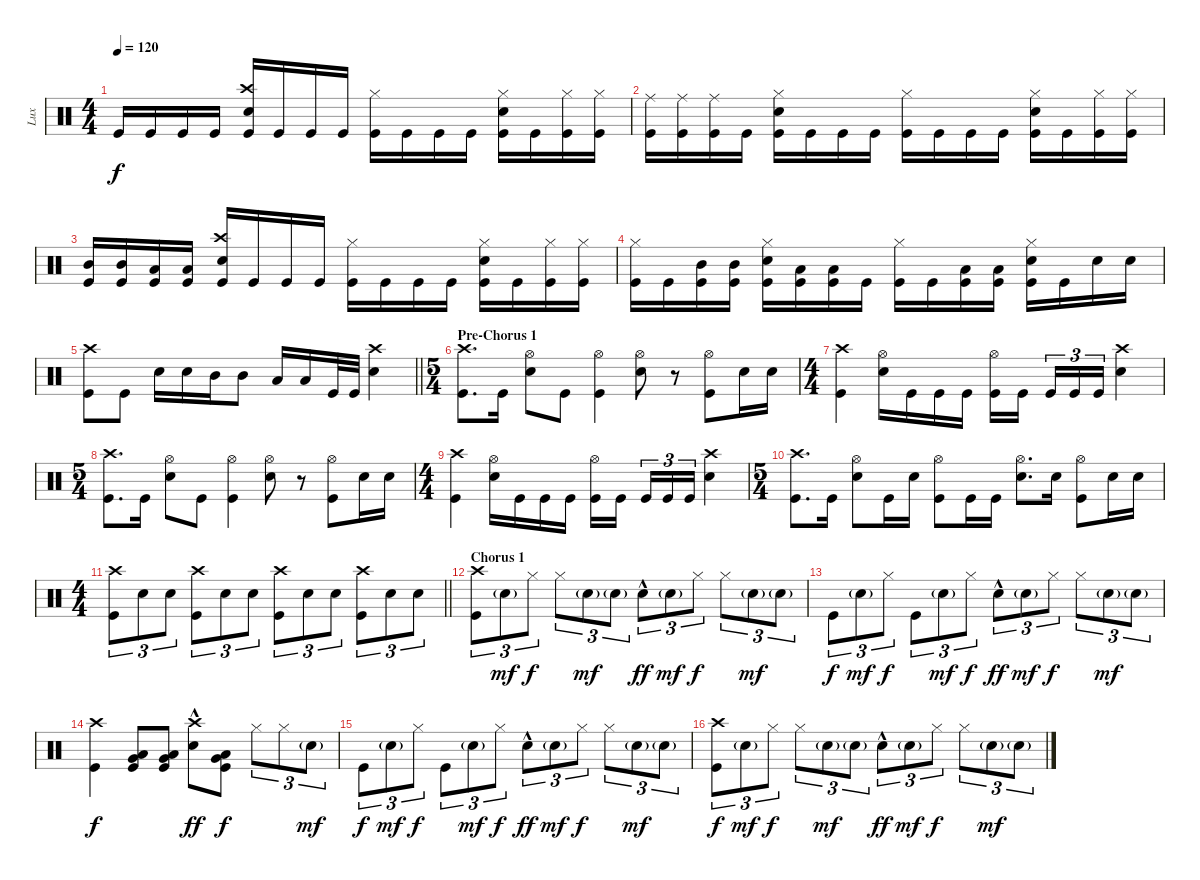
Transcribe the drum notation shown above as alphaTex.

\track ("Lux" "Lux") {instrument percussion bank 32}
\staff {score}
\articulation defaults
\ts (4 4)
\tempo 120
\clef neutral
\ks c "Kick (hit)".16{dy f} "Kick (hit)".16 "Kick (hit)".16 "Kick (hit)".16
("Crash high (hit)" "Snare (hit) 2" "Kick (hit)").16 "Kick (hit)".16 "Kick (hit)".16 "Kick (hit)".16 ("Hi-Hat (closed)" "Kick (hit)").16 "Kick (hit)".16 "Kick (hit)".16 "Kick (hit)".16 ("Hi-Hat (closed)" "Snare (hit) 2" "Kick (hit)").16 "Kick (hit)".16 ("Hi-Hat (closed)" "Kick (hit)").16 ("Hi-Hat (closed)" "Kick (hit)").16 |
("Ride (middle)" "Kick (hit)").16 ("Ride (middle)" "Kick (hit)").16 ("Ride (middle)" "Kick (hit)").16 "Kick (hit)".16 ("Hi-Hat (closed)" "Snare (hit) 2" "Kick (hit)").16 "Kick (hit)".16 "Kick (hit)".16 "Kick (hit)".16 ("Hi-Hat (closed)" "Kick (hit)").16 "Kick (hit)".16 "Kick (hit)".16 "Kick (hit)".16 ("Hi-Hat (closed)" "Snare (hit) 2" "Kick (hit)").16 "Kick (hit)".16 ("Hi-Hat (closed)" "Kick (hit)").16 ("Hi-Hat (closed)" "Kick (hit)").16 |
("Mid Tom (hit)" "Kick (hit)").16 ("Mid Tom (hit)" "Kick (hit)").16 ("Low Tom (hit)" "Kick (hit)").16 ("Low Tom (hit)" "Kick (hit)").16 ("Crash high (hit)" "Snare (hit) 2" "Kick (hit)").16 "Kick (hit)".16 "Kick (hit)".16 "Kick (hit)".16 ("Hi-Hat (closed)" "Kick (hit)").16 "Kick (hit)".16 "Kick (hit)".16 "Kick (hit)".16 ("Hi-Hat (closed)" "Snare (hit) 2" "Kick (hit)").16 "Kick (hit)".16 ("Hi-Hat (closed)" "Kick (hit)").16 ("Hi-Hat (closed)" "Kick (hit)").16 |
("Hi-Hat (closed)" "Kick (hit)").16 "Kick (hit)".16 ("Mid Tom (hit)" "Kick (hit)").16 ("Mid Tom (hit)" "Kick (hit)").16 ("Hi-Hat (closed)" "Snare (hit) 2" "Kick (hit)").16 ("Low Tom (hit)" "Kick (hit)").16 ("Low Tom (hit)" "Kick (hit)").16 "Kick (hit)".16 ("Hi-Hat (closed)" "Kick (hit)").16 "Kick (hit)".16 ("Low Tom (hit)" "Kick (hit)").16 ("Low Tom (hit)" "Kick (hit)").16 ("Hi-Hat (closed)" "Snare (hit) 2" "Kick (hit)").16 "Kick (hit)".16 "Snare (hit) 2".16 "Snare (hit) 2".16 |
\barLineRight lightlight
("Crash high (hit)" "Kick (hit)").8 "Kick (hit)".8 "Snare (hit) 2".16 "Snare (hit) 2".16 "Mid Tom (hit)".16 "Mid Tom (hit)".8 "Low Tom (hit)".16 "Low Tom (hit)".16 "Kick (hit)".32 "Kick (hit)".32 ("Crash high (hit)" "Snare (hit) 2").4 |
\ts (5 4)
\section ("" "Pre-Chorus 1")
("Crash high (hit)" "Kick (hit)").8{d} "Kick (hit)".16 ("Hi-Hat (open)" "Snare (hit) 2").8 "Kick (hit)".8 ("Hi-Hat (open)" "Kick (hit)").4 ("Hi-Hat (open)" "Snare (hit) 2").8 r.8 ("Hi-Hat (open)" "Kick (hit)").8 "Snare (hit) 2".16 "Snare (hit) 2".16 |
\ts (4 4)
("Crash high (hit)" "Kick (hit)").4 ("Hi-Hat (open)" "Snare (hit) 2").16 "Kick (hit)".16 "Kick (hit)".16 "Kick (hit)".16 ("Hi-Hat (open)" "Kick (hit)").16 "Kick (hit)".16{beam splitsecondary} "Kick (hit)".16{tu (3 2)} "Kick (hit)".16{tu (3 2)} "Kick (hit)".16{tu (3 2)} ("Crash high (hit)" "Snare (hit) 2").4 |
\ts (5 4)
("Crash high (hit)" "Kick (hit)").8{d} "Kick (hit)".16 ("Hi-Hat (open)" "Snare (hit) 2").8 "Kick (hit)".8 ("Hi-Hat (open)" "Kick (hit)").4 ("Hi-Hat (open)" "Snare (hit) 2").8 r.8 ("Hi-Hat (open)" "Kick (hit)").8 "Snare (hit) 2".16 "Snare (hit) 2".16 |
\ts (4 4)
("Crash high (hit)" "Kick (hit)").4 ("Hi-Hat (open)" "Snare (hit) 2").16 "Kick (hit)".16 "Kick (hit)".16 "Kick (hit)".16 ("Hi-Hat (open)" "Kick (hit)").16 "Kick (hit)".16{beam splitsecondary} "Kick (hit)".16{tu (3 2)} "Kick (hit)".16{tu (3 2)} "Kick (hit)".16{tu (3 2)} ("Crash high (hit)" "Snare (hit) 2").4 |
\ts (5 4)
("Crash high (hit)" "Kick (hit)").8{d} "Kick (hit)".16 ("Hi-Hat (open)" "Snare (hit) 2").8 "Kick (hit)".16 "Snare (hit) 2".16 ("Hi-Hat (open)" "Kick (hit)").8 "Kick (hit)".16 "Kick (hit)".16 ("Hi-Hat (open)" "Snare (hit) 2").8{d} "Snare (hit) 2".16 ("Hi-Hat (open)" "Kick (hit)").8 "Snare (hit) 2".16 "Snare (hit) 2".16 |
\ts (4 4)
\barLineRight lightlight
("Crash high (hit)" "Kick (hit)").8{tu (3 2)} "Snare (hit) 2".8{tu (3 2)} "Snare (hit) 2".8{tu (3 2)} ("Crash high (hit)" "Kick (hit)").8{tu (3 2)} "Snare (hit) 2".8{tu (3 2)} "Snare (hit) 2".8{tu (3 2)} ("Crash high (hit)" "Kick (hit)").8{tu (3 2)} "Snare (hit) 2".8{tu (3 2)} "Snare (hit) 2".8{tu (3 2)} ("Crash high (hit)" "Kick (hit)").8{tu (3 2)} "Snare (hit) 2".8{tu (3 2)} "Snare (hit) 2".8{tu (3 2)} |
\section ("" "Chorus 1")
("Crash high (hit)" "Kick (hit)").8{tu (3 2)} "Snare (hit) 2"{g}.8{tu (3 2) dy mf} "Hi-Hat (closed)".8{tu (3 2) dy f} "Hi-Hat (closed)".8{tu (3 2)} "Snare (hit) 2"{g}.8{tu (3 2) dy mf} "Snare (hit) 2"{g}.8{tu (3 2)} "Snare (hit) 2"{hac}.8{tu (3 2) dy ff} "Snare (hit) 2"{g}.8{tu (3 2) dy mf} "Hi-Hat (closed)".8{tu (3 2) dy f} "Hi-Hat (closed)".8{tu (3 2)} "Snare (hit) 2"{g}.8{tu (3 2) dy mf} "Snare (hit) 2"{g}.8{tu (3 2)} |
"Kick (hit)".8{tu (3 2) dy f} "Snare (hit) 2"{g}.8{tu (3 2) dy mf} "Hi-Hat (closed)".8{tu (3 2) dy f} "Kick (hit)".8{tu (3 2)} "Snare (hit) 2"{g}.8{tu (3 2) dy mf} "Hi-Hat (closed)".8{tu (3 2) dy f} "Snare (hit) 2"{hac}.8{tu (3 2) dy ff} "Snare (hit) 2"{g}.8{tu (3 2) dy mf} "Hi-Hat (closed)".8{tu (3 2) dy f} "Hi-Hat (closed)".8{tu (3 2)} "Snare (hit) 2"{g}.8{tu (3 2) dy mf} "Snare (hit) 2"{g}.8{tu (3 2)} |
("Crash high (hit)" "Kick (hit)").4{dy f} ("Low Tom (hit)" "Very Low Tom (hit)" "Kick (hit)").8 ("Low Tom (hit)" "Very Low Tom (hit)" "Kick (hit)").8 ("Crash high (hit)" "Snare (hit) 2"{hac}).8{dy ff} ("Low Tom (hit)" "Very Low Tom (hit)" "Kick (hit)").8{dy f} "Hi-Hat (closed)".8{tu (3 2)} "Hi-Hat (closed)".8{tu (3 2)} "Snare (hit) 2"{g}.8{tu (3 2) dy mf} |
"Kick (hit)".8{tu (3 2) dy f} "Snare (hit) 2"{g}.8{tu (3 2) dy mf} "Hi-Hat (closed)".8{tu (3 2) dy f} "Kick (hit)".8{tu (3 2)} "Snare (hit) 2"{g}.8{tu (3 2) dy mf} "Hi-Hat (closed)".8{tu (3 2) dy f} "Snare (hit) 2"{hac}.8{tu (3 2) dy ff} "Snare (hit) 2"{g}.8{tu (3 2) dy mf} "Hi-Hat (closed)".8{tu (3 2) dy f} "Hi-Hat (closed)".8{tu (3 2)} "Snare (hit) 2"{g}.8{tu (3 2) dy mf} "Snare (hit) 2"{g}.8{tu (3 2)} |
("Crash high (hit)" "Kick (hit)").8{tu (3 2) dy f} "Snare (hit) 2"{g}.8{tu (3 2) dy mf} "Hi-Hat (closed)".8{tu (3 2) dy f} "Hi-Hat (closed)".8{tu (3 2)} "Snare (hit) 2"{g}.8{tu (3 2) dy mf} "Snare (hit) 2"{g}.8{tu (3 2)} "Snare (hit) 2"{hac}.8{tu (3 2) dy ff} "Snare (hit) 2"{g}.8{tu (3 2) dy mf} "Hi-Hat (closed)".8{tu (3 2) dy f} "Hi-Hat (closed)".8{tu (3 2)} "Snare (hit) 2"{g}.8{tu (3 2) dy mf} "Snare (hit) 2"{g}.8{tu (3 2)}
